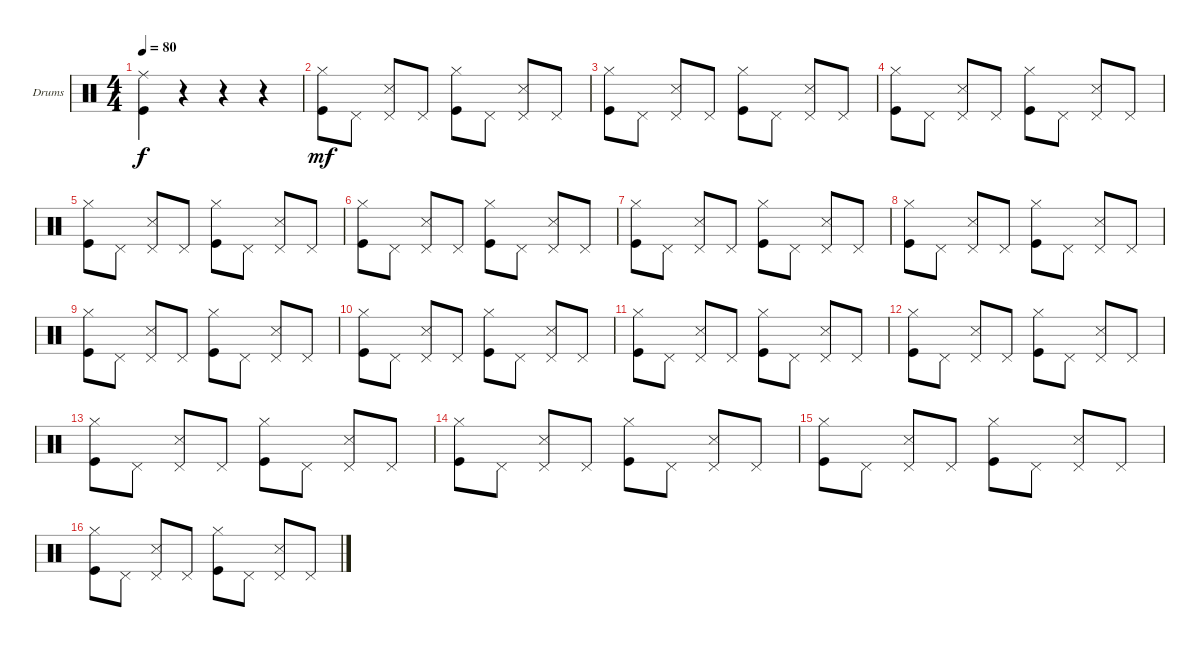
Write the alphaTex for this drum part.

\defaultSystemsLayout 4
\bracketExtendMode groupsimilarinstruments
\firstSystemTrackNameOrientation horizontal
\otherSystemsTrackNameOrientation horizontal
\track ("Drumkit" "Drums") {instrument percussion}
\staff {score}
\articulation defaults
\ts (4 4)
\tempo 80
\clef neutral
\ks c
("Kick (hit)" "Ride (middle)").4{dy f} r.4 r.4 r.4 |
("Hi-Hat (closed)" "Kick (hit)").8{dy mf} "Pedal Hi-Hat (hit)".8 ("Pedal Hi-Hat (hit)" "Snare (side stick) 3").8 "Pedal Hi-Hat (hit)".8 ("Hi-Hat (closed)" "Kick (hit)").8 "Pedal Hi-Hat (hit)".8 ("Pedal Hi-Hat (hit)" "Snare (side stick) 3").8 "Pedal Hi-Hat (hit)".8 |
("Hi-Hat (closed)" "Kick (hit)").8 "Pedal Hi-Hat (hit)".8 ("Pedal Hi-Hat (hit)" "Snare (side stick) 3").8 "Pedal Hi-Hat (hit)".8 ("Hi-Hat (closed)" "Kick (hit)").8 "Pedal Hi-Hat (hit)".8 ("Pedal Hi-Hat (hit)" "Snare (side stick) 3").8 "Pedal Hi-Hat (hit)".8 |
("Hi-Hat (closed)" "Kick (hit)").8 "Pedal Hi-Hat (hit)".8 ("Pedal Hi-Hat (hit)" "Snare (side stick) 3").8 "Pedal Hi-Hat (hit)".8 ("Hi-Hat (closed)" "Kick (hit)").8 "Pedal Hi-Hat (hit)".8 ("Pedal Hi-Hat (hit)" "Snare (side stick) 3").8 "Pedal Hi-Hat (hit)".8 |
("Hi-Hat (closed)" "Kick (hit)").8 "Pedal Hi-Hat (hit)".8 ("Pedal Hi-Hat (hit)" "Snare (side stick) 3").8 "Pedal Hi-Hat (hit)".8 ("Hi-Hat (closed)" "Kick (hit)").8 "Pedal Hi-Hat (hit)".8 ("Pedal Hi-Hat (hit)" "Snare (side stick) 3").8 "Pedal Hi-Hat (hit)".8 |
("Hi-Hat (closed)" "Kick (hit)").8 "Pedal Hi-Hat (hit)".8 ("Pedal Hi-Hat (hit)" "Snare (side stick) 3").8 "Pedal Hi-Hat (hit)".8 ("Hi-Hat (closed)" "Kick (hit)").8 "Pedal Hi-Hat (hit)".8 ("Pedal Hi-Hat (hit)" "Snare (side stick) 3").8 "Pedal Hi-Hat (hit)".8 |
("Hi-Hat (closed)" "Kick (hit)").8 "Pedal Hi-Hat (hit)".8 ("Pedal Hi-Hat (hit)" "Snare (side stick) 3").8 "Pedal Hi-Hat (hit)".8 ("Hi-Hat (closed)" "Kick (hit)").8 "Pedal Hi-Hat (hit)".8 ("Pedal Hi-Hat (hit)" "Snare (side stick) 3").8 "Pedal Hi-Hat (hit)".8 |
("Hi-Hat (closed)" "Kick (hit)").8 "Pedal Hi-Hat (hit)".8 ("Pedal Hi-Hat (hit)" "Snare (side stick) 3").8 "Pedal Hi-Hat (hit)".8 ("Hi-Hat (closed)" "Kick (hit)").8 "Pedal Hi-Hat (hit)".8 ("Pedal Hi-Hat (hit)" "Snare (side stick) 3").8 "Pedal Hi-Hat (hit)".8 |
("Hi-Hat (closed)" "Kick (hit)").8 "Pedal Hi-Hat (hit)".8 ("Pedal Hi-Hat (hit)" "Snare (side stick) 3").8 "Pedal Hi-Hat (hit)".8 ("Hi-Hat (closed)" "Kick (hit)").8 "Pedal Hi-Hat (hit)".8 ("Pedal Hi-Hat (hit)" "Snare (side stick) 3").8 "Pedal Hi-Hat (hit)".8 |
("Hi-Hat (closed)" "Kick (hit)").8 "Pedal Hi-Hat (hit)".8 ("Pedal Hi-Hat (hit)" "Snare (side stick) 3").8 "Pedal Hi-Hat (hit)".8 ("Hi-Hat (closed)" "Kick (hit)").8 "Pedal Hi-Hat (hit)".8 ("Pedal Hi-Hat (hit)" "Snare (side stick) 3").8 "Pedal Hi-Hat (hit)".8 |
("Hi-Hat (closed)" "Kick (hit)").8 "Pedal Hi-Hat (hit)".8 ("Pedal Hi-Hat (hit)" "Snare (side stick) 3").8 "Pedal Hi-Hat (hit)".8 ("Hi-Hat (closed)" "Kick (hit)").8 "Pedal Hi-Hat (hit)".8 ("Pedal Hi-Hat (hit)" "Snare (side stick) 3").8 "Pedal Hi-Hat (hit)".8 |
("Hi-Hat (closed)" "Kick (hit)").8 "Pedal Hi-Hat (hit)".8 ("Pedal Hi-Hat (hit)" "Snare (side stick) 3").8 "Pedal Hi-Hat (hit)".8 ("Hi-Hat (closed)" "Kick (hit)").8 "Pedal Hi-Hat (hit)".8 ("Pedal Hi-Hat (hit)" "Snare (side stick) 3").8 "Pedal Hi-Hat (hit)".8 |
("Hi-Hat (closed)" "Kick (hit)").8 "Pedal Hi-Hat (hit)".8 ("Pedal Hi-Hat (hit)" "Snare (side stick) 3").8 "Pedal Hi-Hat (hit)".8 ("Hi-Hat (closed)" "Kick (hit)").8 "Pedal Hi-Hat (hit)".8 ("Pedal Hi-Hat (hit)" "Snare (side stick) 3").8 "Pedal Hi-Hat (hit)".8 |
("Hi-Hat (closed)" "Kick (hit)").8 "Pedal Hi-Hat (hit)".8 ("Pedal Hi-Hat (hit)" "Snare (side stick) 3").8 "Pedal Hi-Hat (hit)".8 ("Hi-Hat (closed)" "Kick (hit)").8 "Pedal Hi-Hat (hit)".8 ("Pedal Hi-Hat (hit)" "Snare (side stick) 3").8 "Pedal Hi-Hat (hit)".8 |
("Hi-Hat (closed)" "Kick (hit)").8 "Pedal Hi-Hat (hit)".8 ("Pedal Hi-Hat (hit)" "Snare (side stick) 3").8 "Pedal Hi-Hat (hit)".8 ("Hi-Hat (closed)" "Kick (hit)").8 "Pedal Hi-Hat (hit)".8 ("Pedal Hi-Hat (hit)" "Snare (side stick) 3").8 "Pedal Hi-Hat (hit)".8 |
("Hi-Hat (closed)" "Kick (hit)").8 "Pedal Hi-Hat (hit)".8 ("Pedal Hi-Hat (hit)" "Snare (side stick) 3").8 "Pedal Hi-Hat (hit)".8 ("Hi-Hat (closed)" "Kick (hit)").8 "Pedal Hi-Hat (hit)".8 ("Pedal Hi-Hat (hit)" "Snare (side stick) 3").8 "Pedal Hi-Hat (hit)".8
